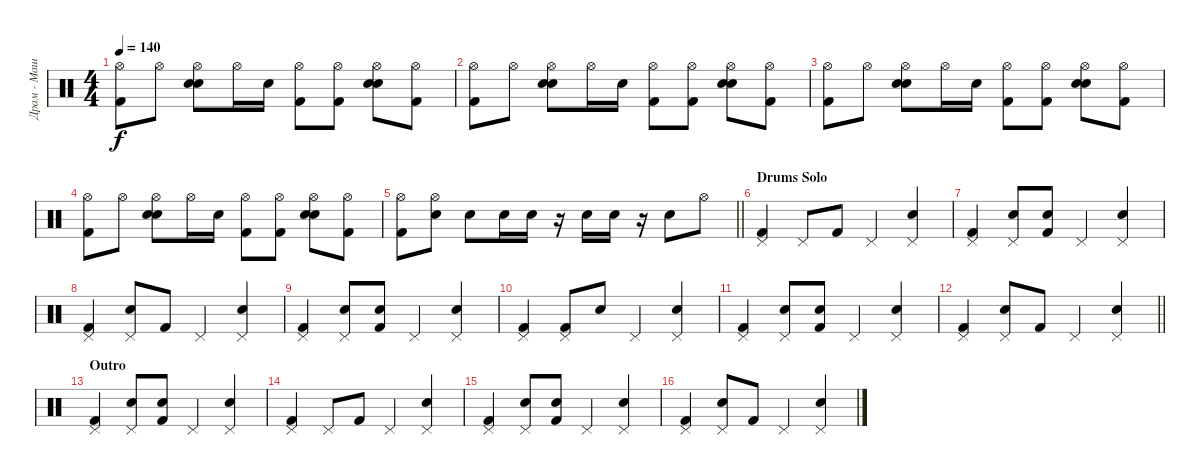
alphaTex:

\track ("Драм - Машина" "Драм - Маш") {instrument percussion}
\staff {score}
\articulation defaults
\ts (4 4)
\tempo 140
\clef neutral
\ks c
("Kick (hit) 2" "Hi-Hat (open)").8{dy f} "Hi-Hat (open)".8 ("Hand Clap (hit)" "Snare (hit) 2" "Hi-Hat (open)").8 "Hi-Hat (open)".16 "Snare (hit) 2".16 ("Kick (hit) 2" "Hi-Hat (open)").8 ("Hi-Hat (open)" "Kick (hit) 2").8 ("Hand Clap (hit)" "Snare (hit) 2" "Hi-Hat (open)").8 ("Hi-Hat (open)" "Kick (hit) 2").8 |
("Kick (hit) 2" "Hi-Hat (open)").8 "Hi-Hat (open)".8 ("Hand Clap (hit)" "Snare (hit) 2" "Hi-Hat (open)").8 "Hi-Hat (open)".16 "Snare (hit) 2".16 ("Kick (hit) 2" "Hi-Hat (open)").8 ("Hi-Hat (open)" "Kick (hit) 2").8 ("Hand Clap (hit)" "Snare (hit) 2" "Hi-Hat (open)").8 ("Hi-Hat (open)" "Kick (hit) 2").8 |
("Kick (hit) 2" "Hi-Hat (open)").8 "Hi-Hat (open)".8 ("Hand Clap (hit)" "Snare (hit) 2" "Hi-Hat (open)").8 "Hi-Hat (open)".16 "Snare (hit) 2".16 ("Kick (hit) 2" "Hi-Hat (open)").8 ("Hi-Hat (open)" "Kick (hit) 2").8 ("Hand Clap (hit)" "Snare (hit) 2" "Hi-Hat (open)").8 ("Hi-Hat (open)" "Kick (hit) 2").8 |
("Kick (hit) 2" "Hi-Hat (open)").8 "Hi-Hat (open)".8 ("Hand Clap (hit)" "Snare (hit) 2" "Hi-Hat (open)").8 "Hi-Hat (open)".16 "Snare (hit) 2".16 ("Kick (hit) 2" "Hi-Hat (open)").8 ("Hi-Hat (open)" "Kick (hit) 2").8 ("Hand Clap (hit)" "Snare (hit) 2" "Hi-Hat (open)").8 ("Hi-Hat (open)" "Kick (hit) 2").8 |
\barLineRight lightlight
("Kick (hit) 2" "Hi-Hat (open)").8 ("Hi-Hat (open)" "Electric Snare (hit)").8 "Electric Snare (hit)".8 "Snare (hit) 2".16 "Electric Snare (hit)".16 r.16 "Electric Snare (hit)".16 "Snare (hit) 2".16 r.16 "Electric Snare (hit)".8 "Hi-Hat (open)".8 |
\section ("" "Drums Solo ")
("Kick (hit) 2" "Pedal Hi-Hat (hit)").4 "Pedal Hi-Hat (hit)".8 "Kick (hit) 2".8 "Pedal Hi-Hat (hit)".4 ("Electric Snare (hit)" "Pedal Hi-Hat (hit)").4 |
("Kick (hit) 2" "Pedal Hi-Hat (hit)").4 ("Electric Snare (hit)" "Pedal Hi-Hat (hit)").8 ("Kick (hit) 2" "Electric Snare (hit)").8 "Pedal Hi-Hat (hit)".4 ("Electric Snare (hit)" "Pedal Hi-Hat (hit)").4 |
("Kick (hit) 2" "Pedal Hi-Hat (hit)").4 ("Pedal Hi-Hat (hit)" "Electric Snare (hit)").8 "Kick (hit) 2".8 "Pedal Hi-Hat (hit)".4 ("Electric Snare (hit)" "Pedal Hi-Hat (hit)").4 |
("Kick (hit) 2" "Pedal Hi-Hat (hit)").4 ("Electric Snare (hit)" "Pedal Hi-Hat (hit)").8 ("Kick (hit) 2" "Electric Snare (hit)").8 "Pedal Hi-Hat (hit)".4 ("Electric Snare (hit)" "Pedal Hi-Hat (hit)").4 |
("Kick (hit) 2" "Pedal Hi-Hat (hit)").4 ("Pedal Hi-Hat (hit)" "Kick (hit) 2").8 "Electric Snare (hit)".8 "Pedal Hi-Hat (hit)".4 ("Electric Snare (hit)" "Pedal Hi-Hat (hit)").4 |
("Kick (hit) 2" "Pedal Hi-Hat (hit)").4 ("Electric Snare (hit)" "Pedal Hi-Hat (hit)").8 ("Kick (hit) 2" "Electric Snare (hit)").8 "Pedal Hi-Hat (hit)".4 ("Electric Snare (hit)" "Pedal Hi-Hat (hit)").4 |
\barLineRight lightlight
("Kick (hit) 2" "Pedal Hi-Hat (hit)").4 ("Pedal Hi-Hat (hit)" "Electric Snare (hit)").8 "Kick (hit) 2".8 "Pedal Hi-Hat (hit)".4 ("Electric Snare (hit)" "Pedal Hi-Hat (hit)").4 |
\section ("" "Outro")
("Kick (hit) 2" "Pedal Hi-Hat (hit)").4 ("Electric Snare (hit)" "Pedal Hi-Hat (hit)").8 ("Kick (hit) 2" "Electric Snare (hit)").8 "Pedal Hi-Hat (hit)".4 ("Electric Snare (hit)" "Pedal Hi-Hat (hit)").4 |
("Kick (hit) 2" "Pedal Hi-Hat (hit)").4 "Pedal Hi-Hat (hit)".8 "Kick (hit) 2".8 "Pedal Hi-Hat (hit)".4 ("Electric Snare (hit)" "Pedal Hi-Hat (hit)").4 |
("Kick (hit) 2" "Pedal Hi-Hat (hit)").4 ("Electric Snare (hit)" "Pedal Hi-Hat (hit)").8 ("Kick (hit) 2" "Electric Snare (hit)").8 "Pedal Hi-Hat (hit)".4 ("Electric Snare (hit)" "Pedal Hi-Hat (hit)").4 |
("Kick (hit) 2" "Pedal Hi-Hat (hit)").4 ("Pedal Hi-Hat (hit)" "Electric Snare (hit)").8 "Kick (hit) 2".8 "Pedal Hi-Hat (hit)".4 ("Electric Snare (hit)" "Pedal Hi-Hat (hit)").4
